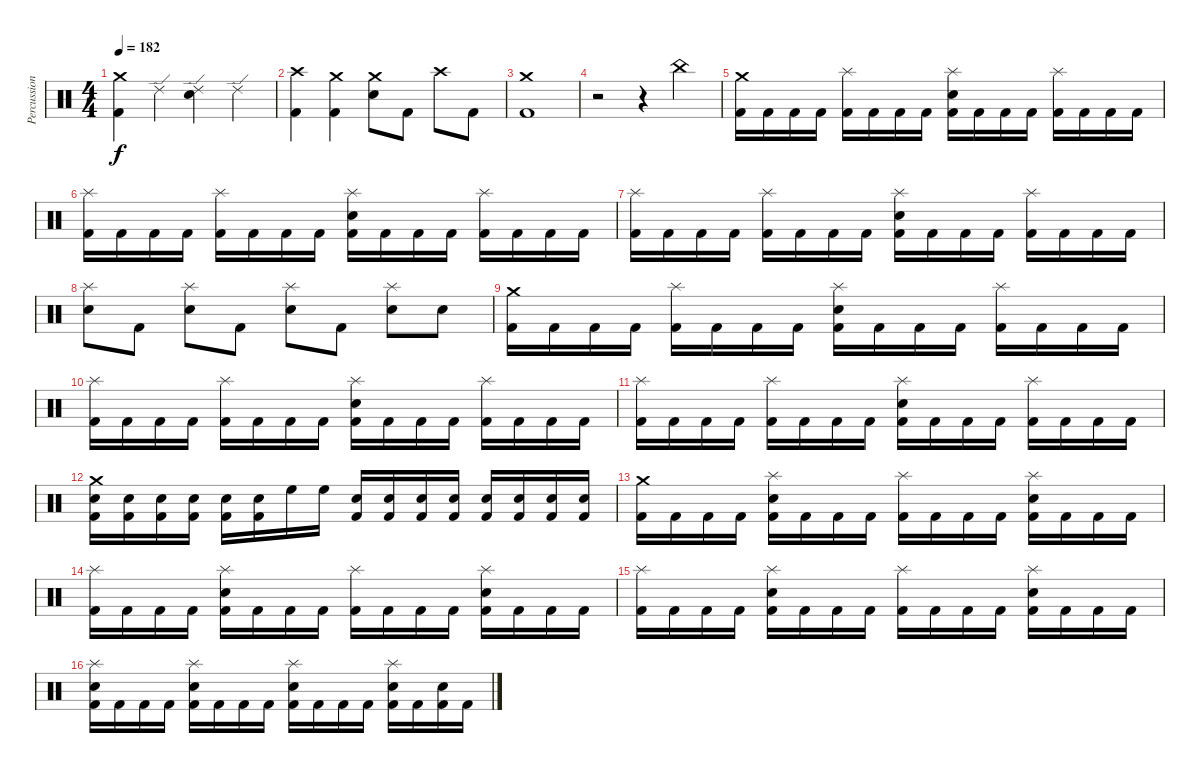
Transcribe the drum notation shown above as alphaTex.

\track ("Percussion" "Percussion") {instrument percussion}
\staff {score}
\articulation defaults
\ts (4 4)
\tempo 182
\clef neutral
\ks c
("Crash medium (hit)" "Kick (hit) 2").4{dy f} "Ride (edge) 2".4 ("Ride (edge) 2" "Electric Snare (hit)").4 "Ride (edge) 2".4 |
("Crash high (hit)" "Kick (hit) 2").4 ("Crash medium (hit)" "Kick (hit) 2").4 ("Crash medium (hit)" "Electric Snare (hit)").8 "Kick (hit) 2".8 "Crash high (hit)".8 "Kick (hit) 2".8 |
("Crash medium (hit)" "Kick (hit) 2").1 |
r.2 r.4 "China (hit)".4 |
("Crash medium (hit)" "Kick (hit) 2").16 "Kick (hit) 2".16 "Kick (hit) 2".16 "Kick (hit) 2".16 ("Splash (hit)" "Kick (hit) 2").16 "Kick (hit) 2".16 "Kick (hit) 2".16 "Kick (hit) 2".16 ("Splash (hit)" "Electric Snare (hit)" "Kick (hit) 2").16 "Kick (hit) 2".16 "Kick (hit) 2".16 "Kick (hit) 2".16 ("Splash (hit)" "Kick (hit) 2").16 "Kick (hit) 2".16 "Kick (hit) 2".16 "Kick (hit) 2".16 |
("Splash (hit)" "Kick (hit) 2").16 "Kick (hit) 2".16 "Kick (hit) 2".16 "Kick (hit) 2".16 ("Splash (hit)" "Kick (hit) 2").16 "Kick (hit) 2".16 "Kick (hit) 2".16 "Kick (hit) 2".16 ("Splash (hit)" "Electric Snare (hit)" "Kick (hit) 2").16 "Kick (hit) 2".16 "Kick (hit) 2".16 "Kick (hit) 2".16 ("Splash (hit)" "Kick (hit) 2").16 "Kick (hit) 2".16 "Kick (hit) 2".16 "Kick (hit) 2".16 |
("Splash (hit)" "Kick (hit) 2").16 "Kick (hit) 2".16 "Kick (hit) 2".16 "Kick (hit) 2".16 ("Splash (hit)" "Kick (hit) 2").16 "Kick (hit) 2".16 "Kick (hit) 2".16 "Kick (hit) 2".16 ("Splash (hit)" "Electric Snare (hit)" "Kick (hit) 2").16 "Kick (hit) 2".16 "Kick (hit) 2".16 "Kick (hit) 2".16 ("Splash (hit)" "Kick (hit) 2").16 "Kick (hit) 2".16 "Kick (hit) 2".16 "Kick (hit) 2".16 |
("Splash (hit)" "Electric Snare (hit)").8 "Kick (hit) 2".8 ("Splash (hit)" "Electric Snare (hit)").8 "Kick (hit) 2".8 ("Splash (hit)" "Electric Snare (hit)").8 "Kick (hit) 2".8 ("Splash (hit)" "Electric Snare (hit)").8 "Electric Snare (hit)".8 |
("Crash medium (hit)" "Kick (hit) 2").16 "Kick (hit) 2".16 "Kick (hit) 2".16 "Kick (hit) 2".16 ("Splash (hit)" "Kick (hit) 2").16 "Kick (hit) 2".16 "Kick (hit) 2".16 "Kick (hit) 2".16 ("Splash (hit)" "Electric Snare (hit)" "Kick (hit) 2").16 "Kick (hit) 2".16 "Kick (hit) 2".16 "Kick (hit) 2".16 ("Splash (hit)" "Kick (hit) 2").16 "Kick (hit) 2".16 "Kick (hit) 2".16 "Kick (hit) 2".16 |
("Splash (hit)" "Kick (hit) 2").16 "Kick (hit) 2".16 "Kick (hit) 2".16 "Kick (hit) 2".16 ("Splash (hit)" "Kick (hit) 2").16 "Kick (hit) 2".16 "Kick (hit) 2".16 "Kick (hit) 2".16 ("Splash (hit)" "Electric Snare (hit)" "Kick (hit) 2").16 "Kick (hit) 2".16 "Kick (hit) 2".16 "Kick (hit) 2".16 ("Splash (hit)" "Kick (hit) 2").16 "Kick (hit) 2".16 "Kick (hit) 2".16 "Kick (hit) 2".16 |
("Splash (hit)" "Kick (hit) 2").16 "Kick (hit) 2".16 "Kick (hit) 2".16 "Kick (hit) 2".16 ("Splash (hit)" "Kick (hit) 2").16 "Kick (hit) 2".16 "Kick (hit) 2".16 "Kick (hit) 2".16 ("Splash (hit)" "Electric Snare (hit)" "Kick (hit) 2").16 "Kick (hit) 2".16 "Kick (hit) 2".16 "Kick (hit) 2".16 ("Splash (hit)" "Kick (hit) 2").16 "Kick (hit) 2".16 "Kick (hit) 2".16 "Kick (hit) 2".16 |
("Crash medium (hit)" "Electric Snare (hit)" "Kick (hit) 2").16 ("Electric Snare (hit)" "Kick (hit) 2").16 ("Electric Snare (hit)" "Kick (hit) 2").16 ("Electric Snare (hit)" "Kick (hit) 2").16 ("Electric Snare (hit)" "Kick (hit) 2").16 ("Electric Snare (hit)" "Kick (hit) 2").16 "High Floor Tom (hit)".16 "High Floor Tom (hit)".16 ("Electric Snare (hit)" "Kick (hit) 2").16 ("Electric Snare (hit)" "Kick (hit) 2").16 ("Electric Snare (hit)" "Kick (hit) 2").16 ("Electric Snare (hit)" "Kick (hit) 2").16 ("Electric Snare (hit)" "Kick (hit) 2").16 ("Electric Snare (hit)" "Kick (hit) 2").16 ("Electric Snare (hit)" "Kick (hit) 2").16 ("Electric Snare (hit)" "Kick (hit) 2").16 |
("Crash medium (hit)" "Kick (hit) 2").16 "Kick (hit) 2".16 "Kick (hit) 2".16 "Kick (hit) 2".16 ("Splash (hit)" "Electric Snare (hit)" "Kick (hit) 2").16 "Kick (hit) 2".16 "Kick (hit) 2".16 "Kick (hit) 2".16 ("Splash (hit)" "Kick (hit) 2").16 "Kick (hit) 2".16 "Kick (hit) 2".16 "Kick (hit) 2".16 ("Splash (hit)" "Electric Snare (hit)" "Kick (hit) 2").16 "Kick (hit) 2".16 "Kick (hit) 2".16 "Kick (hit) 2".16 |
("Splash (hit)" "Kick (hit) 2").16 "Kick (hit) 2".16 "Kick (hit) 2".16 "Kick (hit) 2".16 ("Splash (hit)" "Electric Snare (hit)" "Kick (hit) 2").16 "Kick (hit) 2".16 "Kick (hit) 2".16 "Kick (hit) 2".16 ("Splash (hit)" "Kick (hit) 2").16 "Kick (hit) 2".16 "Kick (hit) 2".16 "Kick (hit) 2".16 ("Splash (hit)" "Electric Snare (hit)" "Kick (hit) 2").16 "Kick (hit) 2".16 "Kick (hit) 2".16 "Kick (hit) 2".16 |
("Splash (hit)" "Kick (hit) 2").16 "Kick (hit) 2".16 "Kick (hit) 2".16 "Kick (hit) 2".16 ("Splash (hit)" "Electric Snare (hit)" "Kick (hit) 2").16 "Kick (hit) 2".16 "Kick (hit) 2".16 "Kick (hit) 2".16 ("Splash (hit)" "Kick (hit) 2").16 "Kick (hit) 2".16 "Kick (hit) 2".16 "Kick (hit) 2".16 ("Splash (hit)" "Electric Snare (hit)" "Kick (hit) 2").16 "Kick (hit) 2".16 "Kick (hit) 2".16 "Kick (hit) 2".16 |
("Splash (hit)" "Electric Snare (hit)" "Kick (hit) 2").16 "Kick (hit) 2".16 "Kick (hit) 2".16 "Kick (hit) 2".16 ("Splash (hit)" "Electric Snare (hit)" "Kick (hit) 2").16 "Kick (hit) 2".16 "Kick (hit) 2".16 "Kick (hit) 2".16 ("Splash (hit)" "Electric Snare (hit)" "Kick (hit) 2").16 "Kick (hit) 2".16 "Kick (hit) 2".16 "Kick (hit) 2".16 ("Splash (hit)" "Electric Snare (hit)" "Kick (hit) 2").16 "Kick (hit) 2".16 ("Electric Snare (hit)" "Kick (hit) 2").16 "Kick (hit) 2".16
